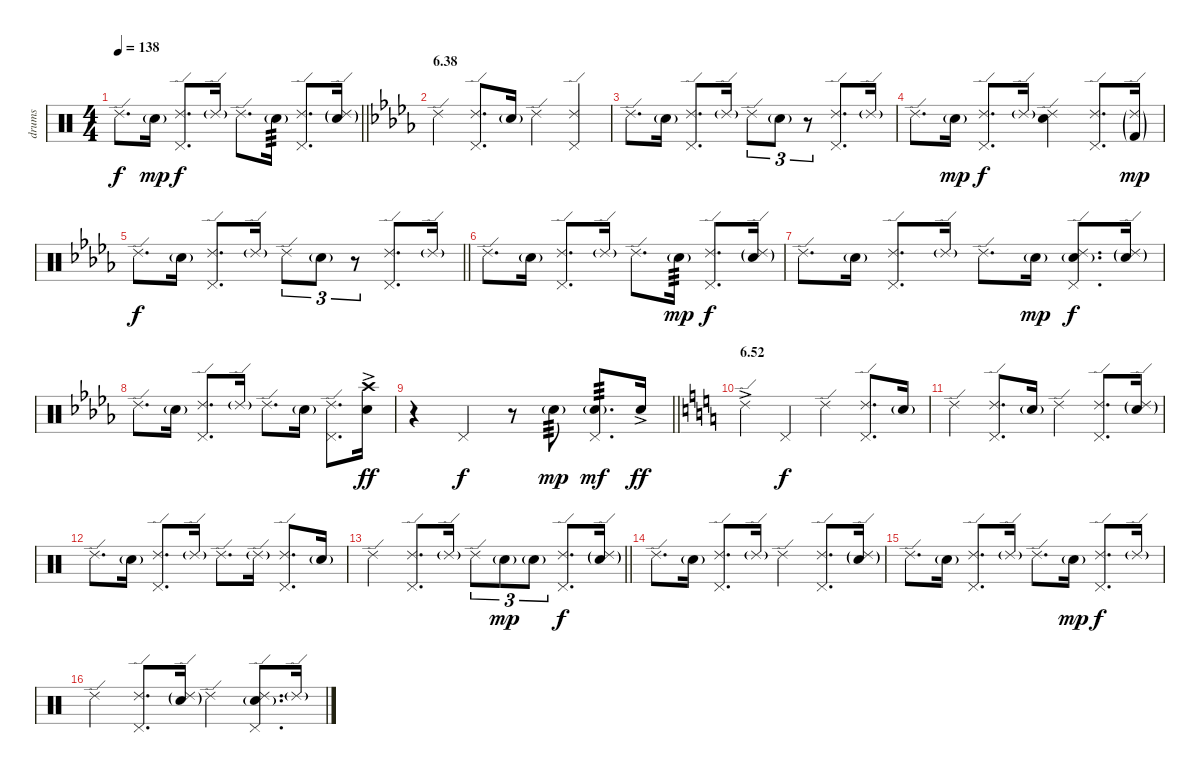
\track ("drums" "drums") {instrument percussion}
\staff {score}
\articulation defaults
\ts (4 4)
\tempo 138
\clef neutral
\barLineRight lightlight
\ks c "Ride (edge) 2".8{d dy f} "Electric Snare (hit)"{g}.16{dy mp}
("Ride (edge) 2" "Pedal Hi-Hat (hit)").8{d dy f} "Ride (edge) 2"{g}.16 "Ride (edge) 2".8{d} "Electric Snare (hit)"{g}.16{tp 3} ("Ride (edge) 2" "Pedal Hi-Hat (hit)").8{d} ("Ride (edge) 2"{g} "Electric Snare (hit)"{g}).16 |
\section ("" "6.38")
\ks db "Ride (edge) 2".4
("Ride (edge) 2" "Pedal Hi-Hat (hit)").8{d} "Electric Snare (hit)"{g}.16 "Ride (edge) 2".4 ("Ride (edge) 2" "Pedal Hi-Hat (hit)").4 |
"Ride (edge) 2".8{d} "Electric Snare (hit)"{g}.16 ("Ride (edge) 2" "Pedal Hi-Hat (hit)").8{d} "Ride (edge) 2"{g}.16 "Ride (edge) 2".8{tu (3 2)} "Electric Snare (hit)"{g}.8{tu (3 2)} r.8{tu (3 2)} ("Ride (edge) 2" "Pedal Hi-Hat (hit)").8{d} "Ride (edge) 2"{g}.16 |
"Ride (edge) 2".8{d} "Electric Snare (hit)"{g}.16{dy mp} ("Ride (edge) 2" "Pedal Hi-Hat (hit)").8{d dy f} "Ride (edge) 2"{g}.16 ("Ride (edge) 2" "Electric Snare (hit)").4 ("Ride (edge) 2" "Pedal Hi-Hat (hit)").8{d} ("Ride (edge) 2"{g} "Kick (hit) 2"{g}).16{dy mp} |
\barLineRight lightlight "Ride (edge) 2".8{d dy f} "Electric Snare (hit)"{g}.16
("Ride (edge) 2" "Pedal Hi-Hat (hit)").8{d} "Ride (edge) 2"{g}.16 "Ride (edge) 2".8{tu (3 2)} "Electric Snare (hit)"{g}.8{tu (3 2)} r.8{tu (3 2)} ("Ride (edge) 2" "Pedal Hi-Hat (hit)").8{d} "Ride (edge) 2"{g}.16 |
"Ride (edge) 2".8{d} "Electric Snare (hit)"{g}.16 ("Ride (edge) 2" "Pedal Hi-Hat (hit)").8{d} "Ride (edge) 2"{g}.16 "Ride (edge) 2".8{d} "Electric Snare (hit)"{g}.16{tp 3 dy mp} ("Ride (edge) 2" "Pedal Hi-Hat (hit)").8{d dy f} ("Ride (edge) 2"{g} "Electric Snare (hit)"{g}).16 |
"Ride (edge) 2".8{d} "Electric Snare (hit)"{g}.16 ("Ride (edge) 2" "Pedal Hi-Hat (hit)").8{d} "Ride (edge) 2"{g}.16 "Ride (edge) 2".8{d} "Electric Snare (hit)"{g}.16{dy mp} ("Ride (edge) 2" "Pedal Hi-Hat (hit)" "Electric Snare (hit)"{g}).8{d dy f} ("Ride (edge) 2"{g} "Electric Snare (hit)"{g}).16 |
"Ride (edge) 2".8{d} "Electric Snare (hit)"{g}.16 ("Ride (edge) 2" "Pedal Hi-Hat (hit)").8{d} "Ride (edge) 2"{g}.16 "Ride (edge) 2".8{d} "Electric Snare (hit)"{g}.16 ("Ride (edge) 2" "Pedal Hi-Hat (hit)").8{d} ("Crash high (hit)" "Electric Snare (hit)"{ac}).16{dy ff} |
\barLineRight lightlight
r.4 "Pedal Hi-Hat (hit)".4{dy f} r.8 "Electric Snare (hit)"{g}.8{tp 3 dy mp} ("Pedal Hi-Hat (hit)" "Electric Snare (hit)"{g}).8{d tp 3 dy mf} "Electric Snare (hit)"{ac}.16{dy ff} |
\section ("" "6.52")
\ks c "Ride (edge) 2"{ac}.4 "Pedal Hi-Hat (hit)".4{dy f} "Ride (edge) 2".4
("Ride (edge) 2" "Pedal Hi-Hat (hit)").8{d} "Electric Snare (hit)"{g}.16 |
"Ride (edge) 2".4 ("Ride (edge) 2" "Pedal Hi-Hat (hit)").8{d} "Electric Snare (hit)"{g}.16 "Ride (edge) 2".4 ("Ride (edge) 2" "Pedal Hi-Hat (hit)").8{d} ("Ride (edge) 2"{g} "Electric Snare (hit)"{g}).16 |
"Ride (edge) 2".8{d} "Electric Snare (hit)"{g}.16 ("Ride (edge) 2" "Pedal Hi-Hat (hit)").8{d} "Ride (edge) 2"{g}.16 "Ride (edge) 2".8{d} "Ride (edge) 2"{g}.16 ("Ride (edge) 2" "Pedal Hi-Hat (hit)").8{d} "Electric Snare (hit)"{g}.16 |
\barLineRight lightlight "Ride (edge) 2".4
("Ride (edge) 2" "Pedal Hi-Hat (hit)").8{d} "Ride (edge) 2"{g}.16 "Ride (edge) 2".8{tu (3 2)} "Electric Snare (hit)"{g}.8{tu (3 2) dy mp} "Electric Snare (hit)"{g}.8{tu (3 2)} ("Ride (edge) 2" "Pedal Hi-Hat (hit)").8{d dy f} ("Ride (edge) 2"{g} "Electric Snare (hit)"{g}).16 |
"Ride (edge) 2".8{d} "Electric Snare (hit)"{g}.16 ("Ride (edge) 2" "Pedal Hi-Hat (hit)").8{d} "Ride (edge) 2"{g}.16 "Ride (edge) 2".4 ("Ride (edge) 2" "Pedal Hi-Hat (hit)").8{d} ("Ride (edge) 2"{g} "Electric Snare (hit)"{g}).16 |
"Ride (edge) 2".8{d} "Electric Snare (hit)"{g}.16 ("Ride (edge) 2" "Pedal Hi-Hat (hit)").8{d} "Ride (edge) 2"{g}.16 "Ride (edge) 2".8{d} "Electric Snare (hit)"{g}.16{dy mp} ("Ride (edge) 2" "Pedal Hi-Hat (hit)").8{d dy f} "Ride (edge) 2"{g}.16 |
"Ride (edge) 2".4 ("Ride (edge) 2" "Pedal Hi-Hat (hit)").8{d} ("Ride (edge) 2"{g} "Electric Snare (hit)"{g}).16 "Ride (edge) 2".4 ("Ride (edge) 2" "Pedal Hi-Hat (hit)" "Electric Snare (hit)"{g}).8{d} "Ride (edge) 2"{g}.16
